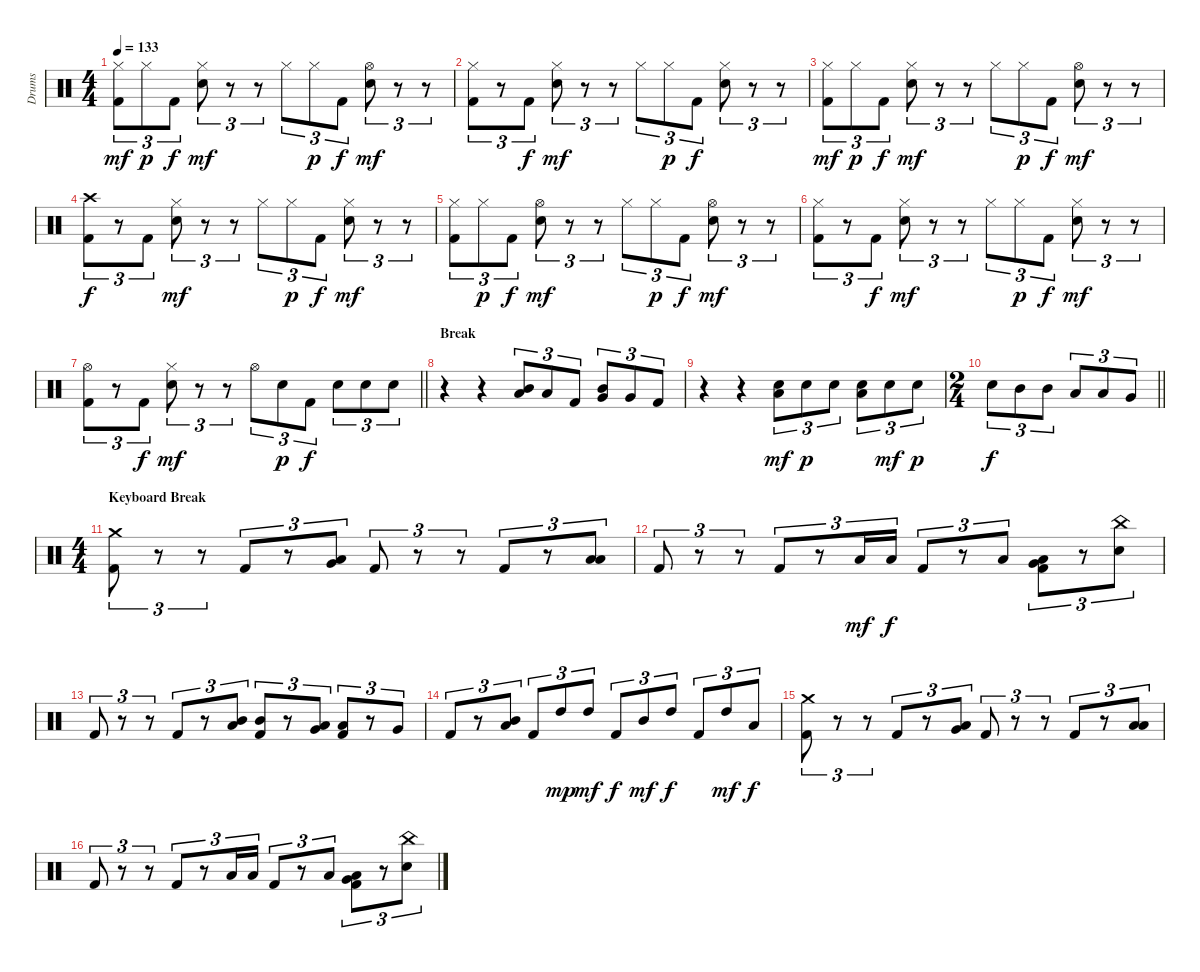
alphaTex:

\track ("Drums" "Drums") {instrument percussion}
\staff {score}
\articulation defaults
\ts (4 4)
\tempo 133
\clef neutral
\ks c
("Hi-Hat (closed)" "Kick (hit) 2").8{tu (3 2) dy mf} "Hi-Hat (closed)".8{tu (3 2) dy p} "Kick (hit) 2".8{tu (3 2) dy f} ("Hi-Hat (closed)" "Electric Snare (hit)").8{tu (3 2) dy mf} r.8{tu (3 2)} r.8{tu (3 2)} "Hi-Hat (closed)".8{tu (3 2)} "Hi-Hat (closed)".8{tu (3 2) dy p} "Kick (hit) 2".8{tu (3 2) dy f} ("Hi-Hat (open)" "Electric Snare (hit)").8{tu (3 2) dy mf} r.8{tu (3 2)} r.8{tu (3 2)} |
("Hi-Hat (closed)" "Kick (hit) 2").8{tu (3 2)} r.8{tu (3 2)} "Kick (hit) 2".8{tu (3 2) dy f} ("Hi-Hat (closed)" "Electric Snare (hit)").8{tu (3 2) dy mf} r.8{tu (3 2)} r.8{tu (3 2)} "Hi-Hat (closed)".8{tu (3 2)} "Hi-Hat (closed)".8{tu (3 2) dy p} "Kick (hit) 2".8{tu (3 2) dy f} ("Hi-Hat (closed)" "Electric Snare (hit)").8{tu (3 2)} r.8{tu (3 2)} r.8{tu (3 2)} |
("Hi-Hat (closed)" "Kick (hit) 2").8{tu (3 2) dy mf} "Hi-Hat (closed)".8{tu (3 2) dy p} "Kick (hit) 2".8{tu (3 2) dy f} ("Hi-Hat (closed)" "Electric Snare (hit)").8{tu (3 2) dy mf} r.8{tu (3 2)} r.8{tu (3 2)} "Hi-Hat (closed)".8{tu (3 2)} "Hi-Hat (closed)".8{tu (3 2) dy p} "Kick (hit) 2".8{tu (3 2) dy f} ("Hi-Hat (open)" "Electric Snare (hit)").8{tu (3 2) dy mf} r.8{tu (3 2)} r.8{tu (3 2)} |
("Crash high (hit)" "Kick (hit) 2").8{tu (3 2) dy f} r.8{tu (3 2)} "Kick (hit) 2".8{tu (3 2)} ("Hi-Hat (closed)" "Electric Snare (hit)").8{tu (3 2) dy mf} r.8{tu (3 2)} r.8{tu (3 2)} "Hi-Hat (closed)".8{tu (3 2)} "Hi-Hat (closed)".8{tu (3 2) dy p} "Kick (hit) 2".8{tu (3 2) dy f} ("Hi-Hat (closed)" "Electric Snare (hit)").8{tu (3 2) dy mf} r.8{tu (3 2)} r.8{tu (3 2)} |
("Hi-Hat (closed)" "Kick (hit) 2").8{tu (3 2)} "Hi-Hat (closed)".8{tu (3 2) dy p} "Kick (hit) 2".8{tu (3 2) dy f} ("Hi-Hat (open)" "Electric Snare (hit)").8{tu (3 2) dy mf} r.8{tu (3 2)} r.8{tu (3 2)} "Hi-Hat (closed)".8{tu (3 2)} "Hi-Hat (closed)".8{tu (3 2) dy p} "Kick (hit) 2".8{tu (3 2) dy f} ("Hi-Hat (open)" "Electric Snare (hit)").8{tu (3 2) dy mf} r.8{tu (3 2)} r.8{tu (3 2)} |
("Hi-Hat (closed)" "Kick (hit) 2").8{tu (3 2)} r.8{tu (3 2)} "Kick (hit) 2".8{tu (3 2) dy f} ("Hi-Hat (closed)" "Electric Snare (hit)").8{tu (3 2) dy mf} r.8{tu (3 2)} r.8{tu (3 2)} "Hi-Hat (closed)".8{tu (3 2)} "Hi-Hat (closed)".8{tu (3 2) dy p} "Kick (hit) 2".8{tu (3 2) dy f} ("Hi-Hat (closed)" "Electric Snare (hit)").8{tu (3 2) dy mf} r.8{tu (3 2)} r.8{tu (3 2)} |
\barLineRight lightlight
("Hi-Hat (open)" "Kick (hit) 2").8{tu (3 2)} r.8{tu (3 2)} "Kick (hit) 2".8{tu (3 2) dy f} ("Hi-Hat (closed)" "Electric Snare (hit)").8{tu (3 2) dy mf} r.8{tu (3 2)} r.8{tu (3 2)} "Hi-Hat (open)".8{tu (3 2)} "Electric Snare (hit)".8{tu (3 2) dy p} "Kick (hit) 2".8{tu (3 2) dy f} "Electric Snare (hit)".8{tu (3 2)} "Electric Snare (hit)".8{tu (3 2)} "Electric Snare (hit)".8{tu (3 2)} |
\section ("" "Break")
r.4 r.4 ("Low Tom (hit)" "Mid Tom (hit)").8{tu (3 2)} "Low Tom (hit)".8{tu (3 2)} "Kick (hit) 2".8{tu (3 2)} ("Very Low Tom (hit)" "Mid Tom (hit)").8{tu (3 2)} "Very Low Tom (hit)".8{tu (3 2)} "Kick (hit) 2".8{tu (3 2)} |
r.4 r.4 ("Electric Snare (hit)" "Low Tom (hit)").8{tu (3 2) dy mf} "Electric Snare (hit)".8{tu (3 2) dy p} "Electric Snare (hit)".8{tu (3 2)} ("Electric Snare (hit)" "Low Tom (hit)").8{tu (3 2)} "Electric Snare (hit)".8{tu (3 2) dy mf} "Electric Snare (hit)".8{tu (3 2) dy p} |
\ts (2 4)
\barLineRight lightlight "Electric Snare (hit)".8{tu (3 2) dy f} "Mid Tom (hit)".8{tu (3 2)} "Mid Tom (hit)".8{tu (3 2)} "Low Tom (hit)".8{tu (3 2)} "Low Tom (hit)".8{tu (3 2)} "Very Low Tom (hit)".8{tu (3 2)}
|
\ts (4 4)
\section ("" "Keyboard Break")
("Crash medium (hit)" "Kick (hit) 2").8{tu (3 2)} r.8{tu (3 2)} r.8{tu (3 2)} "Kick (hit) 2".8{tu (3 2)} r.8{tu (3 2)} ("Low Tom (hit)" "Very Low Tom (hit)").8{tu (3 2)} "Kick (hit) 2".8{tu (3 2)} r.8{tu (3 2)} r.8{tu (3 2)} "Kick (hit) 2".8{tu (3 2)} r.8{tu (3 2)} ("Low Tom (hit)" "Low Floor Tom (hit)").8{tu (3 2)} |
"Kick (hit) 2".8{tu (3 2)} r.8{tu (3 2)} r.8{tu (3 2)} "Kick (hit) 2".8{tu (3 2)} r.8{tu (3 2)} "Low Tom (hit)".16{tu (3 2) dy mf} "Low Tom (hit)".16{tu (3 2) dy f} "Kick (hit) 2".8{tu (3 2)} r.8{tu (3 2)} "Low Floor Tom (hit)".8{tu (3 2)} ("Low Floor Tom (hit)" "Very Low Tom (hit)" "Kick (hit) 2").8{tu (3 2)} r.8{tu (3 2)} ("China (hit)" "Electric Snare (hit)").8{tu (3 2)} |
"Kick (hit) 2".8{tu (3 2)} r.8{tu (3 2)} r.8{tu (3 2)} "Kick (hit) 2".8{tu (3 2)} r.8{tu (3 2)} ("Low Tom (hit)" "Mid Tom (hit)").8{tu (3 2)} ("Mid Tom (hit)" "Kick (hit) 2").8{tu (3 2)} r.8{tu (3 2)} ("Low Tom (hit)" "Very Low Tom (hit)").8{tu (3 2)} ("Low Tom (hit)" "Kick (hit) 2").8{tu (3 2)} r.8{tu (3 2)} "Very Low Tom (hit)".8{tu (3 2)} |
"Kick (hit) 2".8{tu (3 2)} r.8{tu (3 2)} ("Mid Tom (hit)" "Low Tom (hit)").8{tu (3 2)} "Kick (hit) 2".8{tu (3 2)} "High Tom (hit)".8{tu (3 2) dy mp} "High Tom (hit)".8{tu (3 2) dy mf} "Kick (hit) 2".8{tu (3 2) dy f} "Mid Tom (hit)".8{tu (3 2) dy mf} "High Tom (hit)".8{tu (3 2) dy f} "Kick (hit) 2".8{tu (3 2)} "High Tom (hit)".8{tu (3 2) dy mf} "Low Tom (hit)".8{tu (3 2) dy f} |
("Crash medium (hit)" "Kick (hit) 2").8{tu (3 2)} r.8{tu (3 2)} r.8{tu (3 2)} "Kick (hit) 2".8{tu (3 2)} r.8{tu (3 2)} ("Low Tom (hit)" "Very Low Tom (hit)").8{tu (3 2)} "Kick (hit) 2".8{tu (3 2)} r.8{tu (3 2)} r.8{tu (3 2)} "Kick (hit) 2".8{tu (3 2)} r.8{tu (3 2)} ("Low Tom (hit)" "Low Floor Tom (hit)").8{tu (3 2)} |
"Kick (hit) 2".8{tu (3 2)} r.8{tu (3 2)} r.8{tu (3 2)} "Kick (hit) 2".8{tu (3 2)} r.8{tu (3 2)} "Low Tom (hit)".16{tu (3 2)} "Low Tom (hit)".16{tu (3 2)} "Kick (hit) 2".8{tu (3 2)} r.8{tu (3 2)} "Low Floor Tom (hit)".8{tu (3 2)} ("Low Floor Tom (hit)" "Very Low Tom (hit)" "Kick (hit) 2").8{tu (3 2)} r.8{tu (3 2)} ("China (hit)" "Electric Snare (hit)").8{tu (3 2)}
